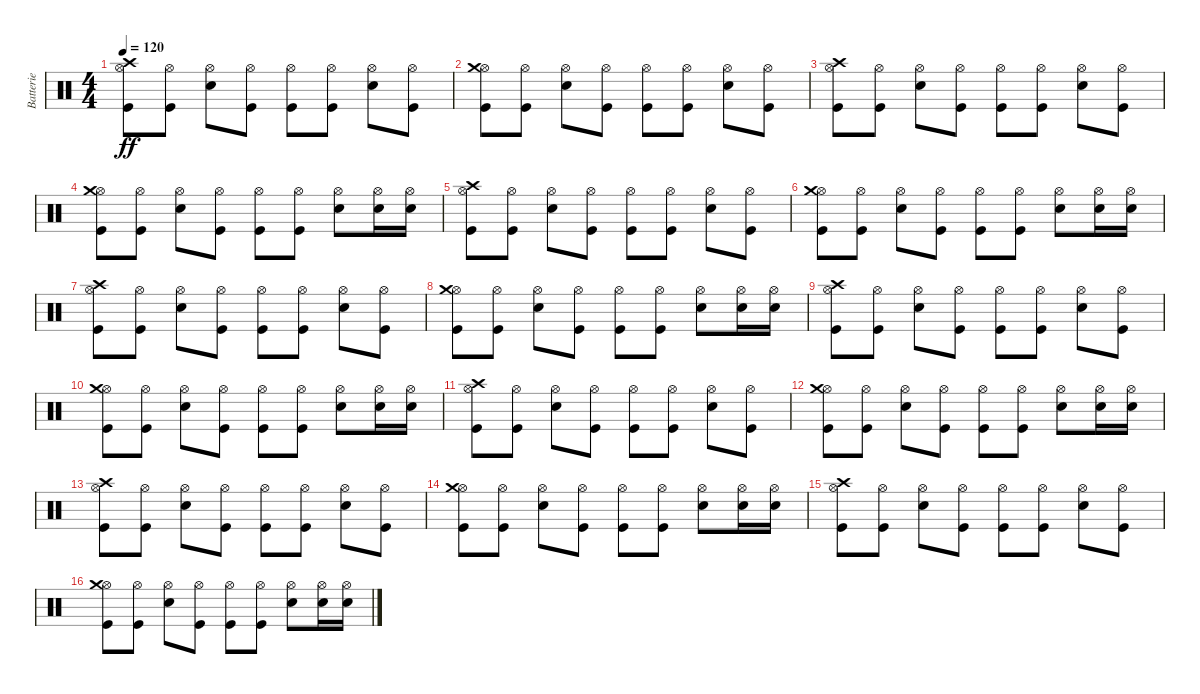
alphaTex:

\track ("Batterie" "Batterie") {instrument percussion}
\staff {score}
\articulation defaults
\ts (4 4)
\tempo 120
\clef neutral
\ks c
("Kick (hit)" "Hi-Hat (open)" "Crash high (hit)").8{dy ff} ("Kick (hit)" "Hi-Hat (open)").8 ("Electric Snare (hit)" "Hi-Hat (open)").8 ("Kick (hit)" "Hi-Hat (open)").8 ("Kick (hit)" "Hi-Hat (open)").8 ("Kick (hit)" "Hi-Hat (open)").8 ("Electric Snare (hit)" "Hi-Hat (open)").8 ("Kick (hit)" "Hi-Hat (open)").8 |
("Kick (hit)" "Hi-Hat (open)" "Crash medium (hit)").8 ("Kick (hit)" "Hi-Hat (open)").8 ("Electric Snare (hit)" "Hi-Hat (open)").8 ("Kick (hit)" "Hi-Hat (open)").8 ("Kick (hit)" "Hi-Hat (open)").8 ("Kick (hit)" "Hi-Hat (open)").8 ("Electric Snare (hit)" "Hi-Hat (open)").8 ("Kick (hit)" "Hi-Hat (open)").8 |
("Kick (hit)" "Hi-Hat (open)" "Crash high (hit)").8 ("Kick (hit)" "Hi-Hat (open)").8 ("Electric Snare (hit)" "Hi-Hat (open)").8 ("Kick (hit)" "Hi-Hat (open)").8 ("Kick (hit)" "Hi-Hat (open)").8 ("Kick (hit)" "Hi-Hat (open)").8 ("Electric Snare (hit)" "Hi-Hat (open)").8 ("Kick (hit)" "Hi-Hat (open)").8 |
("Kick (hit)" "Hi-Hat (open)" "Crash medium (hit)").8 ("Kick (hit)" "Hi-Hat (open)").8 ("Electric Snare (hit)" "Hi-Hat (open)").8 ("Kick (hit)" "Hi-Hat (open)").8 ("Kick (hit)" "Hi-Hat (open)").8 ("Kick (hit)" "Hi-Hat (open)").8 ("Electric Snare (hit)" "Hi-Hat (open)").8 ("Electric Snare (hit)" "Hi-Hat (open)").16 ("Electric Snare (hit)" "Hi-Hat (open)").16 |
("Kick (hit)" "Hi-Hat (open)" "Crash high (hit)").8 ("Kick (hit)" "Hi-Hat (open)").8 ("Electric Snare (hit)" "Hi-Hat (open)").8 ("Kick (hit)" "Hi-Hat (open)").8 ("Kick (hit)" "Hi-Hat (open)").8 ("Kick (hit)" "Hi-Hat (open)").8 ("Electric Snare (hit)" "Hi-Hat (open)").8 ("Kick (hit)" "Hi-Hat (open)").8 |
("Kick (hit)" "Hi-Hat (open)" "Crash medium (hit)").8 ("Kick (hit)" "Hi-Hat (open)").8 ("Electric Snare (hit)" "Hi-Hat (open)").8 ("Kick (hit)" "Hi-Hat (open)").8 ("Kick (hit)" "Hi-Hat (open)").8 ("Kick (hit)" "Hi-Hat (open)").8 ("Electric Snare (hit)" "Hi-Hat (open)").8 ("Electric Snare (hit)" "Hi-Hat (open)").16 ("Electric Snare (hit)" "Hi-Hat (open)").16 |
("Kick (hit)" "Hi-Hat (open)" "Crash high (hit)").8 ("Kick (hit)" "Hi-Hat (open)").8 ("Electric Snare (hit)" "Hi-Hat (open)").8 ("Kick (hit)" "Hi-Hat (open)").8 ("Kick (hit)" "Hi-Hat (open)").8 ("Kick (hit)" "Hi-Hat (open)").8 ("Electric Snare (hit)" "Hi-Hat (open)").8 ("Kick (hit)" "Hi-Hat (open)").8 |
("Kick (hit)" "Hi-Hat (open)" "Crash medium (hit)").8 ("Kick (hit)" "Hi-Hat (open)").8 ("Electric Snare (hit)" "Hi-Hat (open)").8 ("Kick (hit)" "Hi-Hat (open)").8 ("Kick (hit)" "Hi-Hat (open)").8 ("Kick (hit)" "Hi-Hat (open)").8 ("Electric Snare (hit)" "Hi-Hat (open)").8 ("Electric Snare (hit)" "Hi-Hat (open)").16 ("Electric Snare (hit)" "Hi-Hat (open)").16 |
("Kick (hit)" "Hi-Hat (open)" "Crash high (hit)").8 ("Kick (hit)" "Hi-Hat (open)").8 ("Electric Snare (hit)" "Hi-Hat (open)").8 ("Kick (hit)" "Hi-Hat (open)").8 ("Kick (hit)" "Hi-Hat (open)").8 ("Kick (hit)" "Hi-Hat (open)").8 ("Electric Snare (hit)" "Hi-Hat (open)").8 ("Kick (hit)" "Hi-Hat (open)").8 |
("Kick (hit)" "Hi-Hat (open)" "Crash medium (hit)").8 ("Kick (hit)" "Hi-Hat (open)").8 ("Electric Snare (hit)" "Hi-Hat (open)").8 ("Kick (hit)" "Hi-Hat (open)").8 ("Kick (hit)" "Hi-Hat (open)").8 ("Kick (hit)" "Hi-Hat (open)").8 ("Electric Snare (hit)" "Hi-Hat (open)").8 ("Electric Snare (hit)" "Hi-Hat (open)").16 ("Electric Snare (hit)" "Hi-Hat (open)").16 |
("Kick (hit)" "Hi-Hat (open)" "Crash high (hit)").8 ("Kick (hit)" "Hi-Hat (open)").8 ("Electric Snare (hit)" "Hi-Hat (open)").8 ("Kick (hit)" "Hi-Hat (open)").8 ("Kick (hit)" "Hi-Hat (open)").8 ("Kick (hit)" "Hi-Hat (open)").8 ("Electric Snare (hit)" "Hi-Hat (open)").8 ("Kick (hit)" "Hi-Hat (open)").8 |
("Kick (hit)" "Hi-Hat (open)" "Crash medium (hit)").8 ("Kick (hit)" "Hi-Hat (open)").8 ("Electric Snare (hit)" "Hi-Hat (open)").8 ("Kick (hit)" "Hi-Hat (open)").8 ("Kick (hit)" "Hi-Hat (open)").8 ("Kick (hit)" "Hi-Hat (open)").8 ("Electric Snare (hit)" "Hi-Hat (open)").8 ("Electric Snare (hit)" "Hi-Hat (open)").16 ("Electric Snare (hit)" "Hi-Hat (open)").16 |
("Kick (hit)" "Hi-Hat (open)" "Crash high (hit)").8 ("Kick (hit)" "Hi-Hat (open)").8 ("Electric Snare (hit)" "Hi-Hat (open)").8 ("Kick (hit)" "Hi-Hat (open)").8 ("Kick (hit)" "Hi-Hat (open)").8 ("Kick (hit)" "Hi-Hat (open)").8 ("Electric Snare (hit)" "Hi-Hat (open)").8 ("Kick (hit)" "Hi-Hat (open)").8 |
("Kick (hit)" "Hi-Hat (open)" "Crash medium (hit)").8 ("Kick (hit)" "Hi-Hat (open)").8 ("Electric Snare (hit)" "Hi-Hat (open)").8 ("Kick (hit)" "Hi-Hat (open)").8 ("Kick (hit)" "Hi-Hat (open)").8 ("Kick (hit)" "Hi-Hat (open)").8 ("Electric Snare (hit)" "Hi-Hat (open)").8 ("Electric Snare (hit)" "Hi-Hat (open)").16 ("Electric Snare (hit)" "Hi-Hat (open)").16 |
("Kick (hit)" "Hi-Hat (open)" "Crash high (hit)").8 ("Kick (hit)" "Hi-Hat (open)").8 ("Electric Snare (hit)" "Hi-Hat (open)").8 ("Kick (hit)" "Hi-Hat (open)").8 ("Kick (hit)" "Hi-Hat (open)").8 ("Kick (hit)" "Hi-Hat (open)").8 ("Electric Snare (hit)" "Hi-Hat (open)").8 ("Kick (hit)" "Hi-Hat (open)").8 |
("Kick (hit)" "Hi-Hat (open)" "Crash medium (hit)").8 ("Kick (hit)" "Hi-Hat (open)").8 ("Electric Snare (hit)" "Hi-Hat (open)").8 ("Kick (hit)" "Hi-Hat (open)").8 ("Kick (hit)" "Hi-Hat (open)").8 ("Kick (hit)" "Hi-Hat (open)").8 ("Electric Snare (hit)" "Hi-Hat (open)").8 ("Electric Snare (hit)" "Hi-Hat (open)").16 ("Electric Snare (hit)" "Hi-Hat (open)").16
